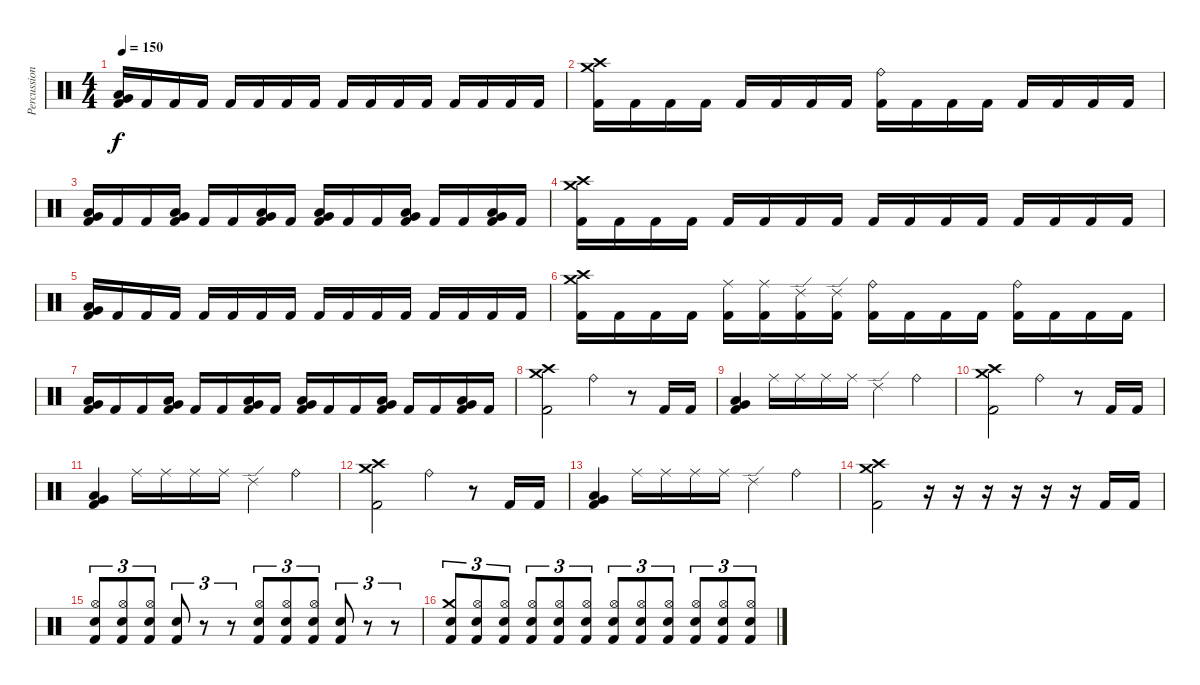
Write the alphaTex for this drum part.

\track ("Percussion" "Percussion") {instrument percussion}
\staff {score}
\articulation defaults
\ts (4 4)
\tempo 150
\clef neutral
\ks c
("Very Low Tom (hit)" "Low Floor Tom (hit)" "Kick (hit) 2").16{dy f} "Kick (hit) 2".16 "Kick (hit) 2".16 "Kick (hit) 2".16 "Kick (hit) 2".16 "Kick (hit) 2".16 "Kick (hit) 2".16 "Kick (hit) 2".16 "Kick (hit) 2".16 "Kick (hit) 2".16 "Kick (hit) 2".16 "Kick (hit) 2".16 "Kick (hit) 2".16 "Kick (hit) 2".16 "Kick (hit) 2".16 "Kick (hit) 2".16 |
("Crash medium (hit)" "Crash high (hit)" "Kick (hit) 2").16 "Kick (hit) 2".16 "Kick (hit) 2".16 "Kick (hit) 2".16 "Kick (hit) 2".16 "Kick (hit) 2".16 "Kick (hit) 2".16 "Kick (hit) 2".16 ("Ride (bell)" "Kick (hit) 2").16 "Kick (hit) 2".16 "Kick (hit) 2".16 "Kick (hit) 2".16 "Kick (hit) 2".16 "Kick (hit) 2".16 "Kick (hit) 2".16 "Kick (hit) 2".16 |
("Very Low Tom (hit)" "Low Floor Tom (hit)" "Kick (hit) 2").16 "Kick (hit) 2".16 "Kick (hit) 2".16 ("Low Floor Tom (hit)" "Very Low Tom (hit)" "Kick (hit) 2").16 "Kick (hit) 2".16 "Kick (hit) 2".16 ("Very Low Tom (hit)" "Low Floor Tom (hit)" "Kick (hit) 2").16 "Kick (hit) 2".16 ("Very Low Tom (hit)" "Low Floor Tom (hit)" "Kick (hit) 2").16 "Kick (hit) 2".16 "Kick (hit) 2".16 ("Very Low Tom (hit)" "Low Floor Tom (hit)" "Kick (hit) 2").16 "Kick (hit) 2".16 "Kick (hit) 2".16 ("Very Low Tom (hit)" "Low Floor Tom (hit)" "Kick (hit) 2").16 "Kick (hit) 2".16 |
("Crash medium (hit)" "Crash high (hit)" "Kick (hit) 2").16 "Kick (hit) 2".16 "Kick (hit) 2".16 "Kick (hit) 2".16 "Kick (hit) 2".16 "Kick (hit) 2".16 "Kick (hit) 2".16 "Kick (hit) 2".16 "Kick (hit) 2".16 "Kick (hit) 2".16 "Kick (hit) 2".16 "Kick (hit) 2".16 "Kick (hit) 2".16 "Kick (hit) 2".16 "Kick (hit) 2".16 "Kick (hit) 2".16 |
("Very Low Tom (hit)" "Low Floor Tom (hit)" "Kick (hit) 2").16 "Kick (hit) 2".16 "Kick (hit) 2".16 "Kick (hit) 2".16 "Kick (hit) 2".16 "Kick (hit) 2".16 "Kick (hit) 2".16 "Kick (hit) 2".16 "Kick (hit) 2".16 "Kick (hit) 2".16 "Kick (hit) 2".16 "Kick (hit) 2".16 "Kick (hit) 2".16 "Kick (hit) 2".16 "Kick (hit) 2".16 "Kick (hit) 2".16 |
("Crash medium (hit)" "Crash high (hit)" "Kick (hit) 2").16 "Kick (hit) 2".16 "Kick (hit) 2".16 "Kick (hit) 2".16 ("Ride (middle)" "Kick (hit) 2").16 ("Ride (middle)" "Kick (hit) 2").16 ("Ride (edge) 2" "Kick (hit) 2").16 ("Ride (edge) 2" "Kick (hit) 2").16 ("Ride (bell)" "Kick (hit) 2").16 "Kick (hit) 2".16 "Kick (hit) 2".16 "Kick (hit) 2".16 ("Ride (bell)" "Kick (hit) 2").16 "Kick (hit) 2".16 "Kick (hit) 2".16 "Kick (hit) 2".16 |
("Very Low Tom (hit)" "Low Floor Tom (hit)" "Kick (hit) 2").16 "Kick (hit) 2".16 "Kick (hit) 2".16 ("Low Floor Tom (hit)" "Very Low Tom (hit)" "Kick (hit) 2").16 "Kick (hit) 2".16 "Kick (hit) 2".16 ("Very Low Tom (hit)" "Low Floor Tom (hit)" "Kick (hit) 2").16 "Kick (hit) 2".16 ("Very Low Tom (hit)" "Low Floor Tom (hit)" "Kick (hit) 2").16 "Kick (hit) 2".16 "Kick (hit) 2".16 ("Very Low Tom (hit)" "Low Floor Tom (hit)" "Kick (hit) 2").16 "Kick (hit) 2".16 "Kick (hit) 2".16 ("Very Low Tom (hit)" "Low Floor Tom (hit)" "Kick (hit) 2").16 "Kick (hit) 2".16 |
("Crash medium (hit)" "Crash high (hit)" "Kick (hit) 2").2 "Ride (bell)".4 r.8 "Kick (hit) 2".16 "Kick (hit) 2".16 |
("Very Low Tom (hit)" "Low Floor Tom (hit)" "Kick (hit) 2").4 "Ride (middle)".16 "Ride (middle)".16 "Ride (middle)".16 "Ride (middle)".16 "Ride (edge) 2".4 "Ride (bell)".4 |
("Crash medium (hit)" "Crash high (hit)" "Kick (hit) 2").2 "Ride (bell)".4 r.8 "Kick (hit) 2".16 "Kick (hit) 2".16 |
("Very Low Tom (hit)" "Low Floor Tom (hit)" "Kick (hit) 2").4 "Ride (middle)".16 "Ride (middle)".16 "Ride (middle)".16 "Ride (middle)".16 "Ride (edge) 2".4 "Ride (bell)".4 |
("Crash medium (hit)" "Crash high (hit)" "Kick (hit) 2").2 "Ride (bell)".4 r.8 "Kick (hit) 2".16 "Kick (hit) 2".16 |
("Very Low Tom (hit)" "Low Floor Tom (hit)" "Kick (hit) 2").4 "Ride (middle)".16 "Ride (middle)".16 "Ride (middle)".16 "Ride (middle)".16 "Ride (edge) 2".4 "Ride (bell)".4 |
("Crash medium (hit)" "Crash high (hit)" "Kick (hit) 2").2 r.16 r.16 r.16 r.16 r.16 r.16 "Kick (hit) 2".16 "Kick (hit) 2".16 |
("Hi-Hat (open)" "Electric Snare (hit)" "Kick (hit) 2").8{tu (3 2)} ("Hi-Hat (open)" "Electric Snare (hit)" "Kick (hit) 2").8{tu (3 2)} ("Hi-Hat (open)" "Electric Snare (hit)" "Kick (hit) 2").8{tu (3 2)} ("Electric Snare (hit)" "Kick (hit) 2").8{tu (3 2)} r.8{tu (3 2)} r.8{tu (3 2)} ("Hi-Hat (open)" "Electric Snare (hit)" "Kick (hit) 2").8{tu (3 2)} ("Hi-Hat (open)" "Electric Snare (hit)" "Kick (hit) 2").8{tu (3 2)} ("Hi-Hat (open)" "Electric Snare (hit)" "Kick (hit) 2").8{tu (3 2)} ("Electric Snare (hit)" "Kick (hit) 2").8{tu (3 2)} r.8{tu (3 2)} r.8{tu (3 2)} |
("Crash medium (hit)" "Electric Snare (hit)" "Kick (hit) 2").8{tu (3 2)} ("Hi-Hat (open)" "Electric Snare (hit)" "Kick (hit) 2").8{tu (3 2)} ("Hi-Hat (open)" "Electric Snare (hit)" "Kick (hit) 2").8{tu (3 2)} ("Hi-Hat (open)" "Electric Snare (hit)" "Kick (hit) 2").8{tu (3 2)} ("Hi-Hat (open)" "Electric Snare (hit)" "Kick (hit) 2").8{tu (3 2)} ("Hi-Hat (open)" "Electric Snare (hit)" "Kick (hit) 2").8{tu (3 2)} ("Hi-Hat (open)" "Electric Snare (hit)" "Kick (hit) 2").8{tu (3 2)} ("Hi-Hat (open)" "Electric Snare (hit)" "Kick (hit) 2").8{tu (3 2)} ("Hi-Hat (open)" "Electric Snare (hit)" "Kick (hit) 2").8{tu (3 2)} ("Hi-Hat (open)" "Electric Snare (hit)" "Kick (hit) 2").8{tu (3 2)} ("Hi-Hat (open)" "Electric Snare (hit)" "Kick (hit) 2").8{tu (3 2)} ("Hi-Hat (open)" "Electric Snare (hit)" "Kick (hit) 2").8{tu (3 2)}
